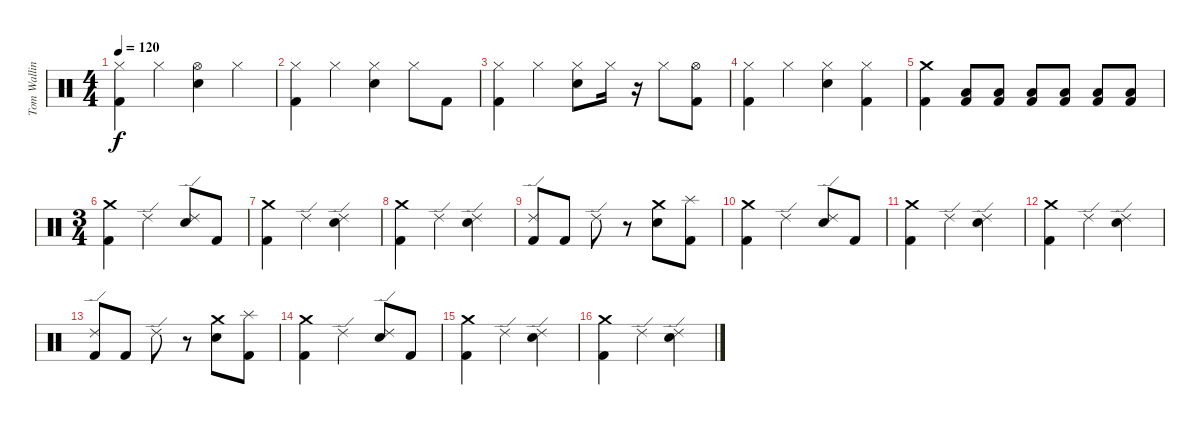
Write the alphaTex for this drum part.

\track ("Tom Walling (Drums)" "Tom Wallin") {instrument percussion}
\staff {score}
\articulation defaults
\ts (4 4)
\tempo 120
\clef neutral
\ks c
("Hi-Hat (closed)" "Kick (hit) 2").4{dy f} "Hi-Hat (closed)".4 ("Hi-Hat (open)" "Electric Snare (hit)").4 "Hi-Hat (closed)".4 |
("Hi-Hat (closed)" "Kick (hit) 2").4 "Hi-Hat (closed)".4 ("Hi-Hat (closed)" "Electric Snare (hit)").4 "Hi-Hat (closed)".8 "Kick (hit) 2".8 |
("Hi-Hat (closed)" "Kick (hit) 2").4 "Hi-Hat (closed)".4 ("Hi-Hat (closed)" "Electric Snare (hit)").8 "Hi-Hat (closed)".16 r.16 "Hi-Hat (closed)".8 ("Hi-Hat (open)" "Kick (hit) 2").8 |
("Hi-Hat (closed)" "Kick (hit) 2").4 "Hi-Hat (closed)".4 ("Hi-Hat (closed)" "Electric Snare (hit)").4 ("Hi-Hat (closed)" "Kick (hit) 2").4 |
("Crash medium (hit)" "Kick (hit) 2").4 ("Kick (hit) 2" "Low Floor Tom (hit)").8{volume 4} ("Kick (hit) 2" "Low Floor Tom (hit)").8{volume 6} ("Kick (hit) 2" "Low Floor Tom (hit)").8{volume 8} ("Kick (hit) 2" "Low Floor Tom (hit)").8{volume 10} ("Kick (hit) 2" "Low Floor Tom (hit)").8{volume 12} ("Kick (hit) 2" "Low Floor Tom (hit)").8{volume 14} |
\ts (3 4)
("Crash medium (hit)" "Kick (hit) 2").4{volume 16} "Ride (edge) 2".4 ("Ride (edge) 2" "Electric Snare (hit)").8 "Kick (hit) 2".8 |
("Kick (hit) 2" "Crash medium (hit)").4 "Ride (edge) 2".4 ("Electric Snare (hit)" "Ride (edge) 2").4 |
("Crash medium (hit)" "Kick (hit) 2").4 "Ride (edge) 2".4 ("Ride (edge) 2" "Electric Snare (hit)").4 |
("Ride (edge) 2" "Kick (hit) 2").8 "Kick (hit) 2".8 "Ride (edge) 2".8 r.8 ("Crash medium (hit)" "Electric Snare (hit)").8 ("Splash (hit)" "Kick (hit) 2").8 |
("Crash medium (hit)" "Kick (hit) 2").4 "Ride (edge) 2".4 ("Ride (edge) 2" "Electric Snare (hit)").8 "Kick (hit) 2".8 |
("Kick (hit) 2" "Crash medium (hit)").4 "Ride (edge) 2".4 ("Electric Snare (hit)" "Ride (edge) 2").4 |
("Crash medium (hit)" "Kick (hit) 2").4 "Ride (edge) 2".4 ("Ride (edge) 2" "Electric Snare (hit)").4 |
("Ride (edge) 2" "Kick (hit) 2").8 "Kick (hit) 2".8 "Ride (edge) 2".8 r.8 ("Crash medium (hit)" "Electric Snare (hit)").8 ("Splash (hit)" "Kick (hit) 2").8 |
("Crash medium (hit)" "Kick (hit) 2").4 "Ride (edge) 2".4 ("Ride (edge) 2" "Electric Snare (hit)").8 "Kick (hit) 2".8 |
("Kick (hit) 2" "Crash medium (hit)").4 "Ride (edge) 2".4 ("Electric Snare (hit)" "Ride (edge) 2").4 |
("Crash medium (hit)" "Kick (hit) 2").4 "Ride (edge) 2".4 ("Ride (edge) 2" "Electric Snare (hit)").4
